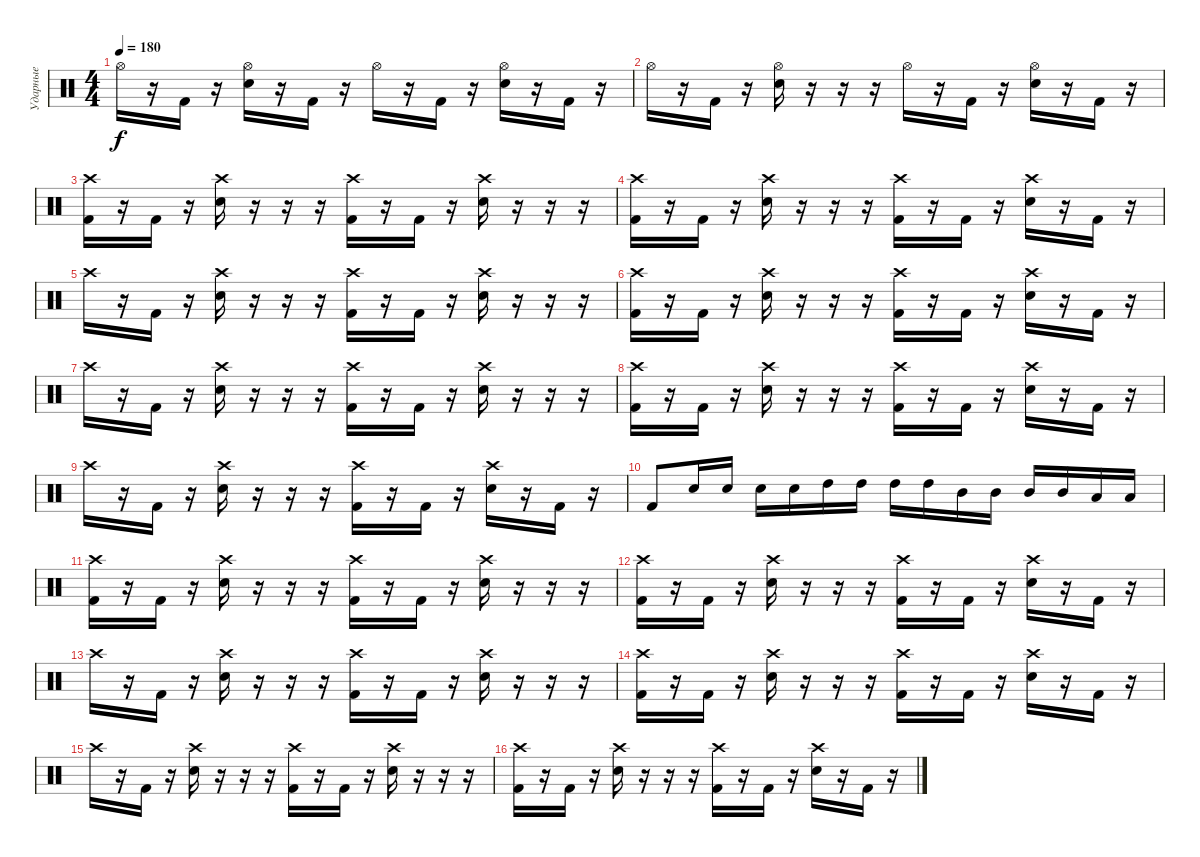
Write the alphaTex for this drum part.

\track ("Ударные" "Ударные") {instrument percussion}
\staff {score}
\articulation defaults
\ts (4 4)
\tempo 180
\clef neutral
\ks c "Hi-Hat (open)".16{dy f}
r.16 "Kick (hit) 2".16 r.16 ("Hi-Hat (open)" "Electric Snare (hit)").16 r.16 "Kick (hit) 2".16 r.16 "Hi-Hat (open)".16 r.16 "Kick (hit) 2".16 r.16 ("Hi-Hat (open)" "Electric Snare (hit)").16 r.16 "Kick (hit) 2".16 r.16 |
"Hi-Hat (open)".16 r.16 "Kick (hit) 2".16 r.16 ("Hi-Hat (open)" "Electric Snare (hit)").16 r.16 r.16 r.16 "Hi-Hat (open)".16 r.16 "Kick (hit) 2".16 r.16 ("Hi-Hat (open)" "Electric Snare (hit)").16 r.16 "Kick (hit) 2".16 r.16 |
("Crash high (hit)" "Kick (hit) 2").16 r.16 "Kick (hit) 2".16 r.16 ("Crash high (hit)" "Electric Snare (hit)").16 r.16 r.16 r.16 ("Crash high (hit)" "Kick (hit) 2").16 r.16 "Kick (hit) 2".16 r.16 ("Crash high (hit)" "Electric Snare (hit)").16 r.16 r.16 r.16 |
("Crash high (hit)" "Kick (hit) 2").16 r.16 "Kick (hit) 2".16 r.16 ("Crash high (hit)" "Electric Snare (hit)").16 r.16 r.16 r.16 ("Crash high (hit)" "Kick (hit) 2").16 r.16 "Kick (hit) 2".16 r.16 ("Crash high (hit)" "Electric Snare (hit)").16 r.16 "Kick (hit) 2".16 r.16 |
"Crash high (hit)".16 r.16 "Kick (hit) 2".16 r.16 ("Crash high (hit)" "Electric Snare (hit)").16 r.16 r.16 r.16 ("Crash high (hit)" "Kick (hit) 2").16 r.16 "Kick (hit) 2".16 r.16 ("Crash high (hit)" "Electric Snare (hit)").16 r.16 r.16 r.16 |
("Crash high (hit)" "Kick (hit) 2").16 r.16 "Kick (hit) 2".16 r.16 ("Crash high (hit)" "Electric Snare (hit)").16 r.16 r.16 r.16 ("Crash high (hit)" "Kick (hit) 2").16 r.16 "Kick (hit) 2".16 r.16 ("Crash high (hit)" "Electric Snare (hit)").16 r.16 "Kick (hit) 2".16 r.16 |
"Crash high (hit)".16 r.16 "Kick (hit) 2".16 r.16 ("Crash high (hit)" "Electric Snare (hit)").16 r.16 r.16 r.16 ("Crash high (hit)" "Kick (hit) 2").16 r.16 "Kick (hit) 2".16 r.16 ("Crash high (hit)" "Electric Snare (hit)").16 r.16 r.16 r.16 |
("Crash high (hit)" "Kick (hit) 2").16 r.16 "Kick (hit) 2".16 r.16 ("Crash high (hit)" "Electric Snare (hit)").16 r.16 r.16 r.16 ("Crash high (hit)" "Kick (hit) 2").16 r.16 "Kick (hit) 2".16 r.16 ("Crash high (hit)" "Electric Snare (hit)").16 r.16 "Kick (hit) 2".16 r.16 |
"Crash high (hit)".16 r.16 "Kick (hit) 2".16 r.16 ("Crash high (hit)" "Electric Snare (hit)").16 r.16 r.16 r.16 ("Crash high (hit)" "Kick (hit) 2").16 r.16 "Kick (hit) 2".16 r.16 ("Crash high (hit)" "Electric Snare (hit)").16 r.16 "Kick (hit) 2".16 r.16 |
"Kick (hit) 2".8 "Electric Snare (hit)".16 "Electric Snare (hit)".16 "Electric Snare (hit)".16 "Electric Snare (hit)".16 "High Tom (hit)".16 "High Tom (hit)".16 "High Tom (hit)".16 "High Tom (hit)".16 "Mid Tom (hit)".16 "Mid Tom (hit)".16 "Mid Tom (hit)".16 "Mid Tom (hit)".16 "Low Tom (hit)".16 "Low Tom (hit)".16 |
("Crash high (hit)" "Kick (hit) 2").16 r.16 "Kick (hit) 2".16 r.16 ("Crash high (hit)" "Electric Snare (hit)").16 r.16 r.16 r.16 ("Crash high (hit)" "Kick (hit) 2").16 r.16 "Kick (hit) 2".16 r.16 ("Crash high (hit)" "Electric Snare (hit)").16 r.16 r.16 r.16 |
("Crash high (hit)" "Kick (hit) 2").16 r.16 "Kick (hit) 2".16 r.16 ("Crash high (hit)" "Electric Snare (hit)").16 r.16 r.16 r.16 ("Crash high (hit)" "Kick (hit) 2").16 r.16 "Kick (hit) 2".16 r.16 ("Crash high (hit)" "Electric Snare (hit)").16 r.16 "Kick (hit) 2".16 r.16 |
"Crash high (hit)".16 r.16 "Kick (hit) 2".16 r.16 ("Crash high (hit)" "Electric Snare (hit)").16 r.16 r.16 r.16 ("Crash high (hit)" "Kick (hit) 2").16 r.16 "Kick (hit) 2".16 r.16 ("Crash high (hit)" "Electric Snare (hit)").16 r.16 r.16 r.16 |
("Crash high (hit)" "Kick (hit) 2").16 r.16 "Kick (hit) 2".16 r.16 ("Crash high (hit)" "Electric Snare (hit)").16 r.16 r.16 r.16 ("Crash high (hit)" "Kick (hit) 2").16 r.16 "Kick (hit) 2".16 r.16 ("Crash high (hit)" "Electric Snare (hit)").16 r.16 "Kick (hit) 2".16 r.16 |
"Crash high (hit)".16 r.16 "Kick (hit) 2".16 r.16 ("Crash high (hit)" "Electric Snare (hit)").16 r.16 r.16 r.16 ("Crash high (hit)" "Kick (hit) 2").16 r.16 "Kick (hit) 2".16 r.16 ("Crash high (hit)" "Electric Snare (hit)").16 r.16 r.16 r.16 |
("Crash high (hit)" "Kick (hit) 2").16 r.16 "Kick (hit) 2".16 r.16 ("Crash high (hit)" "Electric Snare (hit)").16 r.16 r.16 r.16 ("Crash high (hit)" "Kick (hit) 2").16 r.16 "Kick (hit) 2".16 r.16 ("Crash high (hit)" "Electric Snare (hit)").16 r.16 "Kick (hit) 2".16 r.16
